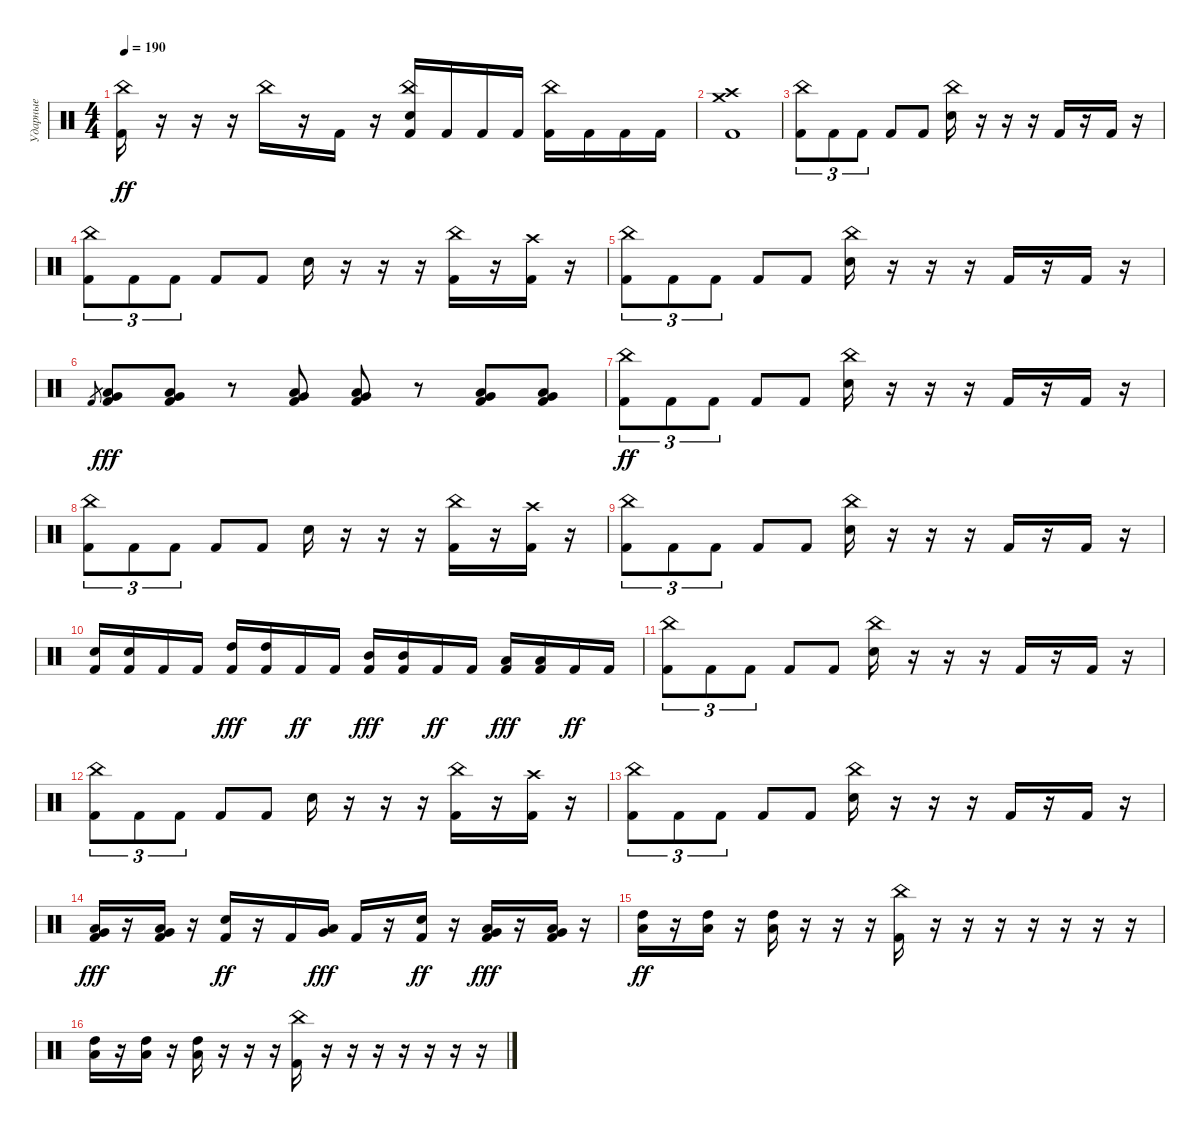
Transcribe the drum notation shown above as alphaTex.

\track ("Ударные" "Ударные") {instrument percussion}
\staff {score}
\articulation defaults
\ts (4 4)
\tempo 190
\clef neutral
\ks c
("Kick (hit) 2" "China (hit)").16{dy ff} r.16 r.16 r.16 "China (hit)".16 r.16 "Kick (hit) 2".16 r.16 ("Snare (hit) 2" "Kick (hit) 2" "China (hit)").16 "Kick (hit) 2".16 "Kick (hit) 2".16 "Kick (hit) 2".16 ("China (hit)" "Kick (hit) 2").16 "Kick (hit) 2".16 "Kick (hit) 2".16 "Kick (hit) 2".16 |
("Kick (hit) 2" "Crash medium (hit)" "Crash high (hit)").1 |
("Kick (hit) 2" "China (hit)").8{tu (3 2)} "Kick (hit) 2".8{tu (3 2)} "Kick (hit) 2".8{tu (3 2)} "Kick (hit) 2".8 "Kick (hit) 2".8 ("Snare (hit) 2" "China (hit)").16 r.16 r.16 r.16 "Kick (hit) 2".16 r.16 "Kick (hit) 2".16 r.16 |
("Kick (hit) 2" "China (hit)").8{tu (3 2)} "Kick (hit) 2".8{tu (3 2)} "Kick (hit) 2".8{tu (3 2)} "Kick (hit) 2".8 "Kick (hit) 2".8 "Snare (hit) 2".16 r.16 r.16 r.16 ("Kick (hit) 2" "China (hit)").16 r.16 ("Kick (hit) 2" "Crash high (hit)").16 r.16 |
("Kick (hit) 2" "China (hit)").8{tu (3 2)} "Kick (hit) 2".8{tu (3 2)} "Kick (hit) 2".8{tu (3 2)} "Kick (hit) 2".8 "Kick (hit) 2".8 ("Snare (hit) 2" "China (hit)").16 r.16 r.16 r.16 "Kick (hit) 2".16 r.16 "Kick (hit) 2".16 r.16 |
"Kick (hit) 2".8{gr} ("Kick (hit) 2" "Low Tom (hit)" "Very Low Tom (hit)").8{dy fff} ("Kick (hit) 2" "Low Tom (hit)" "Very Low Tom (hit)").8 r.8 ("Kick (hit) 2" "Low Tom (hit)" "Very Low Tom (hit)").8 ("Kick (hit) 2" "Low Tom (hit)" "Very Low Tom (hit)").8 r.8 ("Kick (hit) 2" "Low Tom (hit)" "Very Low Tom (hit)").8 ("Kick (hit) 2" "Low Tom (hit)" "Very Low Tom (hit)").8 |
("Kick (hit) 2" "China (hit)").8{tu (3 2) dy ff} "Kick (hit) 2".8{tu (3 2)} "Kick (hit) 2".8{tu (3 2)} "Kick (hit) 2".8 "Kick (hit) 2".8 ("Snare (hit) 2" "China (hit)").16 r.16 r.16 r.16 "Kick (hit) 2".16 r.16 "Kick (hit) 2".16 r.16 |
("Kick (hit) 2" "China (hit)").8{tu (3 2)} "Kick (hit) 2".8{tu (3 2)} "Kick (hit) 2".8{tu (3 2)} "Kick (hit) 2".8 "Kick (hit) 2".8 "Snare (hit) 2".16 r.16 r.16 r.16 ("Kick (hit) 2" "China (hit)").16 r.16 ("Kick (hit) 2" "Crash high (hit)").16 r.16 |
("Kick (hit) 2" "China (hit)").8{tu (3 2)} "Kick (hit) 2".8{tu (3 2)} "Kick (hit) 2".8{tu (3 2)} "Kick (hit) 2".8 "Kick (hit) 2".8 ("Snare (hit) 2" "China (hit)").16 r.16 r.16 r.16 "Kick (hit) 2".16 r.16 "Kick (hit) 2".16 r.16 |
("Kick (hit) 2" "Snare (hit) 2").16 ("Kick (hit) 2" "Snare (hit) 2").16 "Kick (hit) 2".16 "Kick (hit) 2".16 ("Kick (hit) 2" "High Tom (hit)").16{dy fff} ("Kick (hit) 2" "High Tom (hit)").16 "Kick (hit) 2".16{dy ff} "Kick (hit) 2".16 ("Kick (hit) 2" "Mid Tom (hit)").16{dy fff} ("Kick (hit) 2" "Mid Tom (hit)").16 "Kick (hit) 2".16{dy ff} "Kick (hit) 2".16 ("Kick (hit) 2" "Low Tom (hit)").16{dy fff} ("Kick (hit) 2" "Low Tom (hit)").16 "Kick (hit) 2".16{dy ff} "Kick (hit) 2".16 |
("Kick (hit) 2" "China (hit)").8{tu (3 2)} "Kick (hit) 2".8{tu (3 2)} "Kick (hit) 2".8{tu (3 2)} "Kick (hit) 2".8 "Kick (hit) 2".8 ("Snare (hit) 2" "China (hit)").16 r.16 r.16 r.16 "Kick (hit) 2".16 r.16 "Kick (hit) 2".16 r.16 |
("Kick (hit) 2" "China (hit)").8{tu (3 2)} "Kick (hit) 2".8{tu (3 2)} "Kick (hit) 2".8{tu (3 2)} "Kick (hit) 2".8 "Kick (hit) 2".8 "Snare (hit) 2".16 r.16 r.16 r.16 ("Kick (hit) 2" "China (hit)").16 r.16 ("Kick (hit) 2" "Crash high (hit)").16 r.16 |
("Kick (hit) 2" "China (hit)").8{tu (3 2)} "Kick (hit) 2".8{tu (3 2)} "Kick (hit) 2".8{tu (3 2)} "Kick (hit) 2".8 "Kick (hit) 2".8 ("Snare (hit) 2" "China (hit)").16 r.16 r.16 r.16 "Kick (hit) 2".16 r.16 "Kick (hit) 2".16 r.16 |
("Kick (hit) 2" "Very Low Tom (hit)" "Low Tom (hit)").16{dy fff} r.16 ("Kick (hit) 2" "Very Low Tom (hit)" "Low Tom (hit)").16 r.16 ("Kick (hit) 2" "Snare (hit) 2").16{dy ff} r.16 "Kick (hit) 2".16 ("Low Tom (hit)" "Very Low Tom (hit)").16{dy fff} "Kick (hit) 2".16 r.16 ("Kick (hit) 2" "Snare (hit) 2").16{dy ff} r.16 ("Kick (hit) 2" "Low Tom (hit)" "Very Low Tom (hit)").16{dy fff} r.16 ("Kick (hit) 2" "Low Tom (hit)" "Very Low Tom (hit)").16 r.16 |
("Low Tom (hit)" "High Tom (hit)").16{dy ff} r.16 ("Low Tom (hit)" "High Tom (hit)").16 r.16 ("Low Tom (hit)" "High Tom (hit)").16 r.16 r.16 r.16 ("Kick (hit) 2" "China (hit)").16 r.16 r.16 r.16 r.16 r.16 r.16 r.16 |
("Low Tom (hit)" "High Tom (hit)").16 r.16 ("Low Tom (hit)" "High Tom (hit)").16 r.16 ("Low Tom (hit)" "High Tom (hit)").16 r.16 r.16 r.16 ("Kick (hit) 2" "China (hit)").16 r.16 r.16 r.16 r.16 r.16 r.16 r.16
